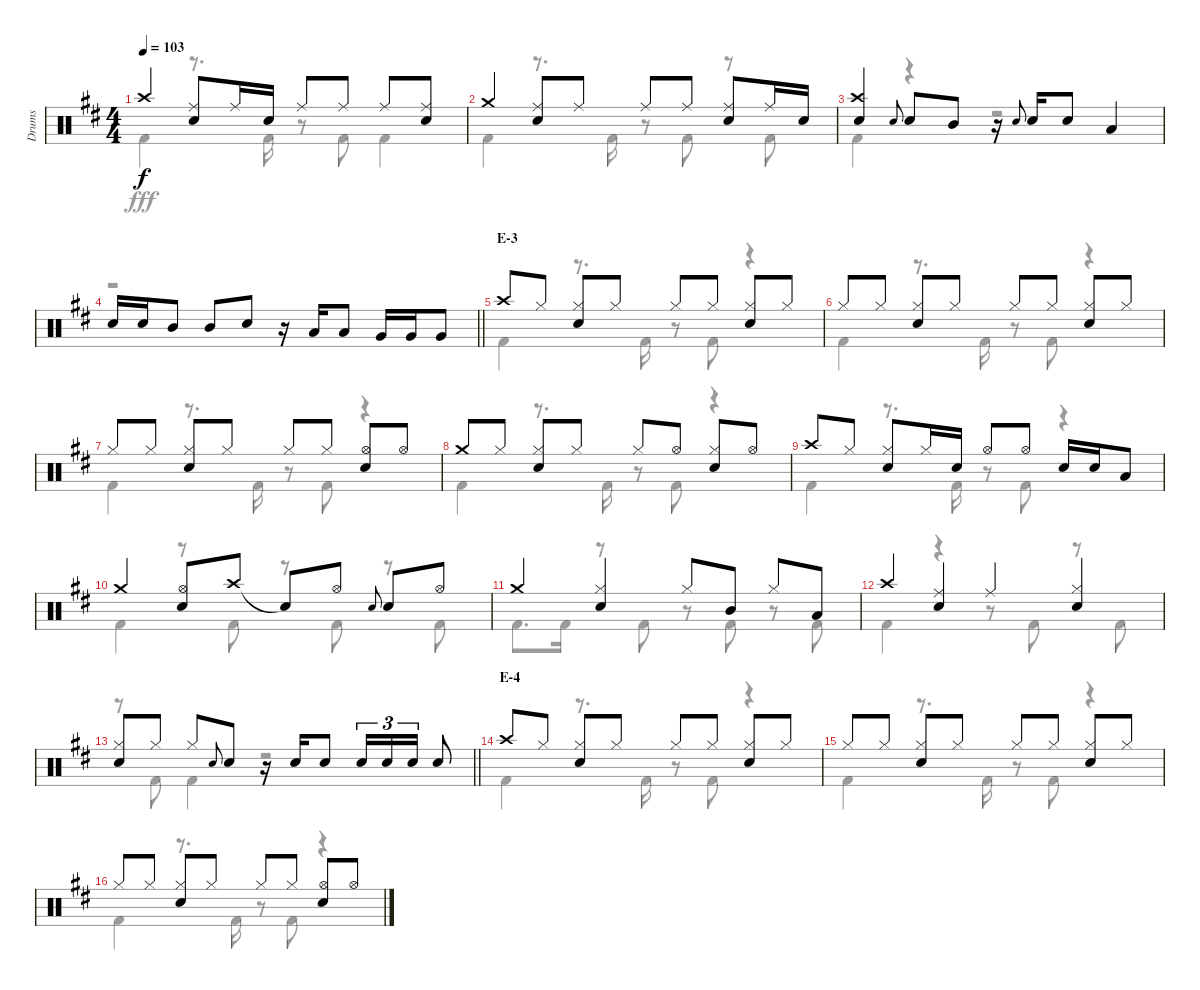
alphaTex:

\track ("Drums" "Drums") {instrument percussion}
\staff {score}
\articulation defaults
\voice
\ts (4 4)
\tempo 103
\clef neutral
\ks d "Crash high (hit)".4{dy f}
("Ride (middle)" "Snare (hit) 2").8 "Ride (middle)".16 "Snare (hit) 2".16 "Ride (middle)".8 "Ride (middle)".8 "Ride (middle)".8 ("Ride (middle)" "Snare (hit) 2").8 |
"Crash medium (hit)".4 ("Ride (middle)" "Snare (hit) 2").8 "Ride (middle)".8 "Ride (middle)".8 "Ride (middle)".8 ("Ride (middle)" "Snare (hit) 2").8 "Ride (middle)".16 "Snare (hit) 2".16 |
("Crash high (hit)" "Snare (hit) 2").4 "Snare (hit) 2".8{gr onbeat} "Snare (hit) 2".8 "Mid Tom (hit)".8 r.16 "Snare (hit) 2".8{gr onbeat} "Snare (hit) 2".16 "Snare (hit) 2".8 "Low Tom (hit)".4 |
\barLineRight lightlight "Snare (hit) 2".16 "Snare (hit) 2".16 "Mid Tom (hit)".8 "Mid Tom (hit)".8 "Snare (hit) 2".8
r.16 "Low Tom (hit)".16 "Low Tom (hit)".8 "Very Low Tom (hit)".16 "Very Low Tom (hit)".16 "Very Low Tom (hit)".8 |
\section ("" "E-3")
"Crash high (hit)".8 "Hi-Hat (closed)".8 ("Hi-Hat (closed)" "Snare (hit) 2").8 "Hi-Hat (closed)".8 "Hi-Hat (closed)".8 "Hi-Hat (closed)".8 ("Hi-Hat (closed)" "Snare (hit) 2").8 "Hi-Hat (closed)".8 |
"Hi-Hat (closed)".8 "Hi-Hat (closed)".8 ("Hi-Hat (closed)" "Snare (hit) 2").8 "Hi-Hat (closed)".8 "Hi-Hat (closed)".8 "Hi-Hat (closed)".8 ("Hi-Hat (closed)" "Snare (hit) 2").8 "Hi-Hat (closed)".8 |
"Hi-Hat (closed)".8 "Hi-Hat (closed)".8 ("Hi-Hat (closed)" "Snare (hit) 2").8 "Hi-Hat (closed)".8 "Hi-Hat (closed)".8 "Hi-Hat (closed)".8 ("Hi-Hat (open)" "Snare (hit) 2").8 "Hi-Hat (open)".8 |
"Crash medium (hit)".8 "Hi-Hat (closed)".8 ("Hi-Hat (closed)" "Snare (hit) 2").8 "Hi-Hat (closed)".8 "Hi-Hat (closed)".8 "Hi-Hat (open)".8 ("Hi-Hat (closed)" "Snare (hit) 2").8 "Hi-Hat (open)".8 |
"Crash high (hit)".8 "Hi-Hat (closed)".8 ("Hi-Hat (closed)" "Snare (hit) 2").8 "Hi-Hat (closed)".16 "Snare (hit) 2".16 "Hi-Hat (open)".8 "Hi-Hat (open)".8 "Snare (hit) 2".16 "Snare (hit) 2".16 "Low Tom (hit)".8 |
"Crash medium (hit)".4 ("Hi-Hat (open)" "Snare (hit) 2").8 "Crash high (hit)".8 "Snare (hit)"{t}.8 "Hi-Hat (open)".8 "Snare (hit) 2".8{gr onbeat} "Snare (hit) 2".8 "Hi-Hat (open)".8 |
"Crash medium (hit)".4 ("Hi-Hat (closed)" "Snare (hit) 2").4 "Hi-Hat (closed)".8 "Mid Tom (hit)".8 "Hi-Hat (closed)".8 "Low Tom (hit)".8 |
"Crash high (hit)".4 ("Ride (middle)" "Snare (hit) 2").4 "Ride (middle)".4 ("Hi-Hat (closed)" "Snare (hit) 2").4 |
\barLineRight lightlight
("Hi-Hat (closed)" "Snare (hit) 2").8 "Hi-Hat (closed)".8 "Hi-Hat (closed)".8 "Snare (hit) 2".8{gr onbeat} "Snare (hit) 2".8 r.16 "Snare (hit) 2".16 "Snare (hit) 2".8 "Snare (hit) 2".16{tu (3 2)} "Snare (hit) 2".16{tu (3 2)} "Snare (hit) 2".16{tu (3 2)} "Snare (hit) 2".8 |
\section ("" "E-4")
"Crash high (hit)".8 "Hi-Hat (closed)".8 ("Hi-Hat (closed)" "Snare (hit) 2").8 "Hi-Hat (closed)".8 "Hi-Hat (closed)".8 "Hi-Hat (closed)".8 ("Hi-Hat (closed)" "Snare (hit) 2").8 "Hi-Hat (closed)".8 |
"Hi-Hat (closed)".8 "Hi-Hat (closed)".8 ("Hi-Hat (closed)" "Snare (hit) 2").8 "Hi-Hat (closed)".8 "Hi-Hat (closed)".8 "Hi-Hat (closed)".8 ("Hi-Hat (closed)" "Snare (hit) 2").8 "Hi-Hat (closed)".8 |
"Hi-Hat (closed)".8 "Hi-Hat (closed)".8 ("Hi-Hat (closed)" "Snare (hit) 2").8 "Hi-Hat (closed)".8 "Hi-Hat (closed)".8 "Hi-Hat (closed)".8 ("Hi-Hat (open)" "Snare (hit) 2").8 "Hi-Hat (open)".8
\voice
\clef neutral
\ottava regular
\simile none
\ks d "Kick (hit) 2".4{dy fff}
r.8{d} "Kick (hit) 2".16 r.8 "Kick (hit) 2".8 "Kick (hit) 2".4 |
"Kick (hit) 2".4 r.8{d} "Kick (hit) 2".16 r.8 "Kick (hit) 2".8 r.8 "Kick (hit) 2".8 |
"Kick (hit) 2".4 r.4 r.2 |
\barLineRight lightlight
r.1 |
"Kick (hit) 2".4 r.8{d} "Kick (hit) 2".16 r.8 "Kick (hit) 2".8 r.4 |
"Kick (hit) 2".4 r.8{d} "Kick (hit) 2".16 r.8 "Kick (hit) 2".8 r.4 |
"Kick (hit) 2".4 r.8{d} "Kick (hit) 2".16 r.8 "Kick (hit) 2".8 r.4 |
"Kick (hit) 2".4 r.8{d} "Kick (hit) 2".16 r.8 "Kick (hit) 2".8 r.4 |
"Kick (hit) 2".4 r.8{d} "Kick (hit) 2".16 r.8 "Kick (hit) 2".8 r.4 |
"Kick (hit) 2".4 r.8 "Kick (hit) 2".8 r.8 "Kick (hit) 2".8 r.8 "Kick (hit) 2".8 |
"Kick (hit) 2".8{d} "Kick (hit) 2".16 r.8 "Kick (hit) 2".8 r.8 "Kick (hit) 2".8 r.8 "Kick (hit) 2".8 |
"Kick (hit) 2".4 r.4 r.8 "Kick (hit) 2".8 r.8 "Kick (hit) 2".8 |
\barLineRight lightlight
r.8 "Kick (hit) 2".8 "Kick (hit) 2".4 r.2 |
"Kick (hit) 2".4 r.8{d} "Kick (hit) 2".16 r.8 "Kick (hit) 2".8 r.4 |
"Kick (hit) 2".4 r.8{d} "Kick (hit) 2".16 r.8 "Kick (hit) 2".8 r.4 |
"Kick (hit) 2".4 r.8{d} "Kick (hit) 2".16 r.8 "Kick (hit) 2".8 r.4
